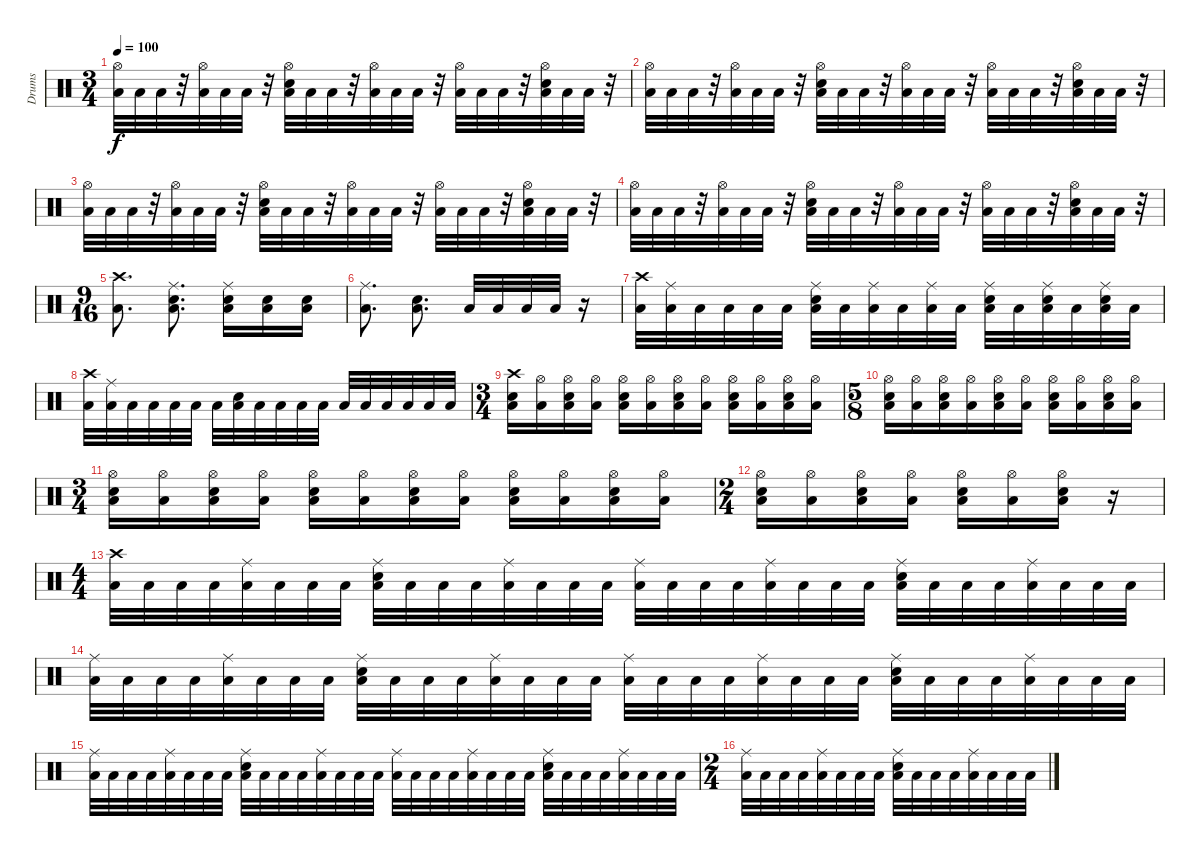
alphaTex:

\track ("Drums" "Drums") {instrument percussion}
\staff {score}
\articulation defaults
\ts (3 4)
\tempo 100
\clef neutral
\ks c
("Hi-Hat (open)" "Low Floor Tom (hit)").32{dy f} "Low Floor Tom (hit)".32 "Low Floor Tom (hit)".32 r.32 ("Hi-Hat (open)" "Low Floor Tom (hit)").32 "Low Floor Tom (hit)".32 "Low Floor Tom (hit)".32 r.32 ("Hi-Hat (open)" "Electric Snare (hit)" "Low Floor Tom (hit)").32 "Low Floor Tom (hit)".32 "Low Floor Tom (hit)".32 r.32 ("Hi-Hat (open)" "Low Floor Tom (hit)").32 "Low Floor Tom (hit)".32 "Low Floor Tom (hit)".32 r.32 ("Hi-Hat (open)" "Low Floor Tom (hit)").32 "Low Floor Tom (hit)".32 "Low Floor Tom (hit)".32 r.32 ("Hi-Hat (open)" "Electric Snare (hit)" "Low Floor Tom (hit)").32 "Low Floor Tom (hit)".32 "Low Floor Tom (hit)".32 r.32 |
("Hi-Hat (open)" "Low Floor Tom (hit)").32 "Low Floor Tom (hit)".32 "Low Floor Tom (hit)".32 r.32 ("Hi-Hat (open)" "Low Floor Tom (hit)").32 "Low Floor Tom (hit)".32 "Low Floor Tom (hit)".32 r.32 ("Hi-Hat (open)" "Electric Snare (hit)" "Low Floor Tom (hit)").32 "Low Floor Tom (hit)".32 "Low Floor Tom (hit)".32 r.32 ("Hi-Hat (open)" "Low Floor Tom (hit)").32 "Low Floor Tom (hit)".32 "Low Floor Tom (hit)".32 r.32 ("Hi-Hat (open)" "Low Floor Tom (hit)").32 "Low Floor Tom (hit)".32 "Low Floor Tom (hit)".32 r.32 ("Hi-Hat (open)" "Electric Snare (hit)" "Low Floor Tom (hit)").32 "Low Floor Tom (hit)".32 "Low Floor Tom (hit)".32 r.32 |
("Hi-Hat (open)" "Low Floor Tom (hit)").32 "Low Floor Tom (hit)".32 "Low Floor Tom (hit)".32 r.32 ("Hi-Hat (open)" "Low Floor Tom (hit)").32 "Low Floor Tom (hit)".32 "Low Floor Tom (hit)".32 r.32 ("Hi-Hat (open)" "Electric Snare (hit)" "Low Floor Tom (hit)").32 "Low Floor Tom (hit)".32 "Low Floor Tom (hit)".32 r.32 ("Hi-Hat (open)" "Low Floor Tom (hit)").32 "Low Floor Tom (hit)".32 "Low Floor Tom (hit)".32 r.32 ("Hi-Hat (open)" "Low Floor Tom (hit)").32 "Low Floor Tom (hit)".32 "Low Floor Tom (hit)".32 r.32 ("Hi-Hat (open)" "Electric Snare (hit)" "Low Floor Tom (hit)").32 "Low Floor Tom (hit)".32 "Low Floor Tom (hit)".32 r.32 |
("Hi-Hat (open)" "Low Floor Tom (hit)").32 "Low Floor Tom (hit)".32 "Low Floor Tom (hit)".32 r.32 ("Hi-Hat (open)" "Low Floor Tom (hit)").32 "Low Floor Tom (hit)".32 "Low Floor Tom (hit)".32 r.32 ("Hi-Hat (open)" "Electric Snare (hit)" "Low Floor Tom (hit)").32 "Low Floor Tom (hit)".32 "Low Floor Tom (hit)".32 r.32 ("Hi-Hat (open)" "Low Floor Tom (hit)").32 "Low Floor Tom (hit)".32 "Low Floor Tom (hit)".32 r.32 ("Hi-Hat (open)" "Low Floor Tom (hit)").32 "Low Floor Tom (hit)".32 "Low Floor Tom (hit)".32 r.32 ("Hi-Hat (open)" "Electric Snare (hit)" "Low Floor Tom (hit)").32 "Low Floor Tom (hit)".32 "Low Floor Tom (hit)".32 r.32 |
\ts (9 16)
("Crash high (hit)" "Low Floor Tom (hit)").8{d} ("Ride (middle)" "Electric Snare (hit)" "Low Floor Tom (hit)").8{d} ("Ride (middle)" "Electric Snare (hit)" "Low Floor Tom (hit)").16 ("Electric Snare (hit)" "Low Floor Tom (hit)").16 ("Electric Snare (hit)" "Low Floor Tom (hit)").16 |
("Ride (middle)" "Low Floor Tom (hit)").8{d} ("Electric Snare (hit)" "Low Floor Tom (hit)").8{d} "Low Floor Tom (hit)".32 "Low Floor Tom (hit)".32 "Low Floor Tom (hit)".32 "Low Floor Tom (hit)".32 r.16 |
("Crash high (hit)" "Low Floor Tom (hit)").32 ("Ride (middle)" "Low Floor Tom (hit)").32 "Low Floor Tom (hit)".32 "Low Floor Tom (hit)".32 "Low Floor Tom (hit)".32 "Low Floor Tom (hit)".32 ("Ride (middle)" "Electric Snare (hit)" "Low Floor Tom (hit)").32 "Low Floor Tom (hit)".32 ("Ride (middle)" "Low Floor Tom (hit)").32 "Low Floor Tom (hit)".32 ("Ride (middle)" "Low Floor Tom (hit)").32 "Low Floor Tom (hit)".32 ("Ride (middle)" "Electric Snare (hit)" "Low Floor Tom (hit)").32 "Low Floor Tom (hit)".32 ("Ride (middle)" "Electric Snare (hit)" "Low Floor Tom (hit)").32 "Low Floor Tom (hit)".32 ("Ride (middle)" "Electric Snare (hit)" "Low Floor Tom (hit)").32 "Low Floor Tom (hit)".32 |
("Crash high (hit)" "Low Floor Tom (hit)").32 ("Ride (middle)" "Low Floor Tom (hit)").32 "Low Floor Tom (hit)".32 "Low Floor Tom (hit)".32 "Low Floor Tom (hit)".32 "Low Floor Tom (hit)".32 "Low Floor Tom (hit)".32 ("Electric Snare (hit)" "Low Floor Tom (hit)").32 "Low Floor Tom (hit)".32 "Low Floor Tom (hit)".32 "Low Floor Tom (hit)".32 "Low Floor Tom (hit)".32 "Low Floor Tom (hit)".32 "Low Floor Tom (hit)".32 "Low Floor Tom (hit)".32 "Low Floor Tom (hit)".32 "Low Floor Tom (hit)".32 "Low Floor Tom (hit)".32 |
\ts (3 4)
("Crash high (hit)" "Electric Snare (hit)" "Low Floor Tom (hit)").16 ("Hi-Hat (open)" "Low Floor Tom (hit)").16 ("Hi-Hat (open)" "Electric Snare (hit)" "Low Floor Tom (hit)").16 ("Hi-Hat (open)" "Low Floor Tom (hit)").16 ("Hi-Hat (open)" "Electric Snare (hit)" "Low Floor Tom (hit)").16 ("Hi-Hat (open)" "Low Floor Tom (hit)").16 ("Hi-Hat (open)" "Electric Snare (hit)" "Low Floor Tom (hit)").16 ("Hi-Hat (open)" "Low Floor Tom (hit)").16 ("Hi-Hat (open)" "Electric Snare (hit)" "Low Floor Tom (hit)").16 ("Hi-Hat (open)" "Low Floor Tom (hit)").16 ("Hi-Hat (open)" "Electric Snare (hit)" "Low Floor Tom (hit)").16 ("Hi-Hat (open)" "Low Floor Tom (hit)").16 |
\ts (5 8)
("Hi-Hat (open)" "Electric Snare (hit)" "Low Floor Tom (hit)").16 ("Hi-Hat (open)" "Low Floor Tom (hit)").16 ("Hi-Hat (open)" "Electric Snare (hit)" "Low Floor Tom (hit)").16 ("Hi-Hat (open)" "Low Floor Tom (hit)").16 ("Hi-Hat (open)" "Electric Snare (hit)" "Low Floor Tom (hit)").16 ("Hi-Hat (open)" "Low Floor Tom (hit)").16 ("Hi-Hat (open)" "Electric Snare (hit)" "Low Floor Tom (hit)").16 ("Hi-Hat (open)" "Low Floor Tom (hit)").16 ("Hi-Hat (open)" "Electric Snare (hit)" "Low Floor Tom (hit)").16 ("Hi-Hat (open)" "Low Floor Tom (hit)").16 |
\ts (3 4)
("Hi-Hat (open)" "Electric Snare (hit)" "Low Floor Tom (hit)").16 ("Hi-Hat (open)" "Low Floor Tom (hit)").16 ("Hi-Hat (open)" "Electric Snare (hit)" "Low Floor Tom (hit)").16 ("Hi-Hat (open)" "Low Floor Tom (hit)").16 ("Hi-Hat (open)" "Electric Snare (hit)" "Low Floor Tom (hit)").16 ("Hi-Hat (open)" "Low Floor Tom (hit)").16 ("Hi-Hat (open)" "Electric Snare (hit)" "Low Floor Tom (hit)").16 ("Hi-Hat (open)" "Low Floor Tom (hit)").16 ("Hi-Hat (open)" "Electric Snare (hit)" "Low Floor Tom (hit)").16 ("Hi-Hat (open)" "Low Floor Tom (hit)").16 ("Hi-Hat (open)" "Electric Snare (hit)" "Low Floor Tom (hit)").16 ("Hi-Hat (open)" "Low Floor Tom (hit)").16 |
\ts (2 4)
("Hi-Hat (open)" "Electric Snare (hit)" "Low Floor Tom (hit)").16 ("Hi-Hat (open)" "Low Floor Tom (hit)").16 ("Hi-Hat (open)" "Electric Snare (hit)" "Low Floor Tom (hit)").16 ("Hi-Hat (open)" "Low Floor Tom (hit)").16 ("Hi-Hat (open)" "Electric Snare (hit)" "Low Floor Tom (hit)").16 ("Hi-Hat (open)" "Low Floor Tom (hit)").16 ("Hi-Hat (open)" "Electric Snare (hit)" "Low Floor Tom (hit)").16 r.16 |
\ts (4 4)
("Crash high (hit)" "Low Floor Tom (hit)").32 "Low Floor Tom (hit)".32 "Low Floor Tom (hit)".32 "Low Floor Tom (hit)".32 ("Ride (middle)" "Low Floor Tom (hit)").32 "Low Floor Tom (hit)".32 "Low Floor Tom (hit)".32 "Low Floor Tom (hit)".32 ("Ride (middle)" "Electric Snare (hit)" "Low Floor Tom (hit)").32 "Low Floor Tom (hit)".32 "Low Floor Tom (hit)".32 "Low Floor Tom (hit)".32 ("Ride (middle)" "Low Floor Tom (hit)").32 "Low Floor Tom (hit)".32 "Low Floor Tom (hit)".32 "Low Floor Tom (hit)".32 ("Ride (middle)" "Low Floor Tom (hit)").32 "Low Floor Tom (hit)".32 "Low Floor Tom (hit)".32 "Low Floor Tom (hit)".32 ("Ride (middle)" "Low Floor Tom (hit)").32 "Low Floor Tom (hit)".32 "Low Floor Tom (hit)".32 "Low Floor Tom (hit)".32 ("Ride (middle)" "Electric Snare (hit)" "Low Floor Tom (hit)").32 "Low Floor Tom (hit)".32 "Low Floor Tom (hit)".32 "Low Floor Tom (hit)".32 ("Ride (middle)" "Low Floor Tom (hit)").32 "Low Floor Tom (hit)".32 "Low Floor Tom (hit)".32 "Low Floor Tom (hit)".32 |
("Ride (middle)" "Low Floor Tom (hit)").32 "Low Floor Tom (hit)".32 "Low Floor Tom (hit)".32 "Low Floor Tom (hit)".32 ("Ride (middle)" "Low Floor Tom (hit)").32 "Low Floor Tom (hit)".32 "Low Floor Tom (hit)".32 "Low Floor Tom (hit)".32 ("Ride (middle)" "Electric Snare (hit)" "Low Floor Tom (hit)").32 "Low Floor Tom (hit)".32 "Low Floor Tom (hit)".32 "Low Floor Tom (hit)".32 ("Ride (middle)" "Low Floor Tom (hit)").32 "Low Floor Tom (hit)".32 "Low Floor Tom (hit)".32 "Low Floor Tom (hit)".32 ("Ride (middle)" "Low Floor Tom (hit)").32 "Low Floor Tom (hit)".32 "Low Floor Tom (hit)".32 "Low Floor Tom (hit)".32 ("Ride (middle)" "Low Floor Tom (hit)").32 "Low Floor Tom (hit)".32 "Low Floor Tom (hit)".32 "Low Floor Tom (hit)".32 ("Ride (middle)" "Electric Snare (hit)" "Low Floor Tom (hit)").32 "Low Floor Tom (hit)".32 "Low Floor Tom (hit)".32 "Low Floor Tom (hit)".32 ("Ride (middle)" "Low Floor Tom (hit)").32 "Low Floor Tom (hit)".32 "Low Floor Tom (hit)".32 "Low Floor Tom (hit)".32 |
("Ride (middle)" "Low Floor Tom (hit)").32 "Low Floor Tom (hit)".32 "Low Floor Tom (hit)".32 "Low Floor Tom (hit)".32 ("Ride (middle)" "Low Floor Tom (hit)").32 "Low Floor Tom (hit)".32 "Low Floor Tom (hit)".32 "Low Floor Tom (hit)".32 ("Ride (middle)" "Electric Snare (hit)" "Low Floor Tom (hit)").32 "Low Floor Tom (hit)".32 "Low Floor Tom (hit)".32 "Low Floor Tom (hit)".32 ("Ride (middle)" "Low Floor Tom (hit)").32 "Low Floor Tom (hit)".32 "Low Floor Tom (hit)".32 "Low Floor Tom (hit)".32 ("Ride (middle)" "Low Floor Tom (hit)").32 "Low Floor Tom (hit)".32 "Low Floor Tom (hit)".32 "Low Floor Tom (hit)".32 ("Ride (middle)" "Low Floor Tom (hit)").32 "Low Floor Tom (hit)".32 "Low Floor Tom (hit)".32 "Low Floor Tom (hit)".32 ("Ride (middle)" "Electric Snare (hit)" "Low Floor Tom (hit)").32 "Low Floor Tom (hit)".32 "Low Floor Tom (hit)".32 "Low Floor Tom (hit)".32 ("Ride (middle)" "Low Floor Tom (hit)").32 "Low Floor Tom (hit)".32 "Low Floor Tom (hit)".32 "Low Floor Tom (hit)".32 |
\ts (2 4)
("Ride (middle)" "Low Floor Tom (hit)").32 "Low Floor Tom (hit)".32 "Low Floor Tom (hit)".32 "Low Floor Tom (hit)".32 ("Ride (middle)" "Low Floor Tom (hit)").32 "Low Floor Tom (hit)".32 "Low Floor Tom (hit)".32 "Low Floor Tom (hit)".32 ("Ride (middle)" "Electric Snare (hit)" "Low Floor Tom (hit)").32 "Low Floor Tom (hit)".32 "Low Floor Tom (hit)".32 "Low Floor Tom (hit)".32 ("Ride (middle)" "Low Floor Tom (hit)").32 "Low Floor Tom (hit)".32 "Low Floor Tom (hit)".32 "Low Floor Tom (hit)".32
